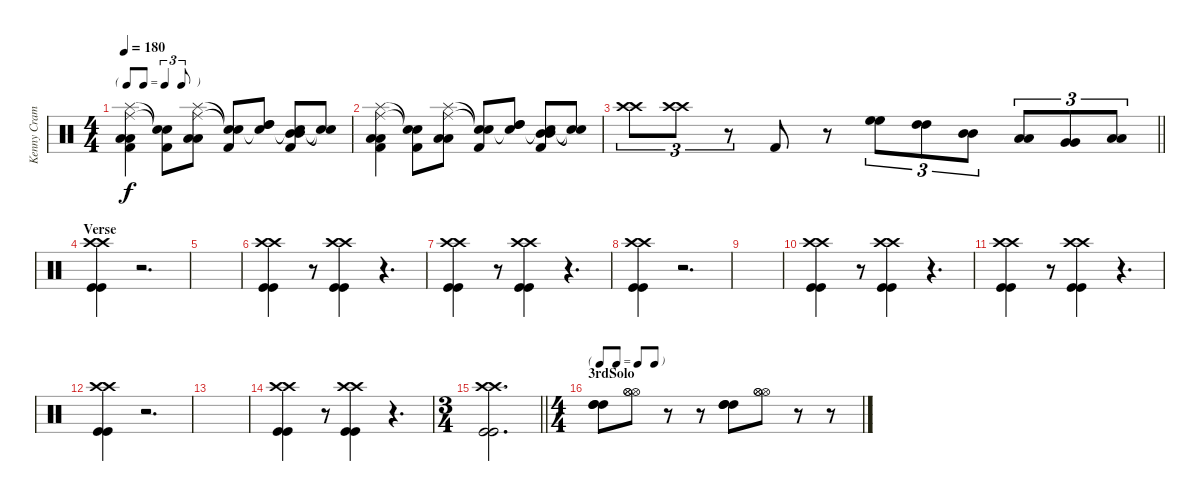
\track ("Kenny Cramme" "Kenny Cram") {instrument percussion}
\staff {score}
\articulation defaults
\ts (4 4)
\tf triplet8th
\tempo 180
\clef neutral
\ks c
("Ride (middle)" "Splash (hit)" "Low Floor Tom (hit)" "Low Floor Tom (hit)" "Kick (hit) 2").4{dy f} ("Snare (hit)"{t} "Snare (hit)"{t} "Kick (hit) 2").8 ("Ride (middle)" "Splash (hit)" "Low Floor Tom (hit)" "Low Floor Tom (hit)").8 ("Snare (hit)"{t} "Snare (hit)"{t} "Kick (hit) 2").8 ("Snare (hit)"{t} "High Tom (hit)" "High Tom (hit)").8 ("Snare (hit)"{t} "Mid Tom (hit)" "Mid Tom (hit)" "Kick (hit) 2").8 ("Snare (hit)"{t} "Snare (hit)"{t}).8 |
("Ride (middle)" "Splash (hit)" "Low Floor Tom (hit)" "Low Floor Tom (hit)" "Kick (hit) 2").4 ("Snare (hit)"{t} "Snare (hit)"{t} "Kick (hit) 2").8 ("Ride (middle)" "Splash (hit)" "Low Floor Tom (hit)" "Low Floor Tom (hit)").8 ("Snare (hit)"{t} "Snare (hit)"{t} "Kick (hit) 2").8 ("Snare (hit)"{t} "High Tom (hit)" "High Tom (hit)").8 ("Snare (hit)"{t} "Mid Tom (hit)" "Mid Tom (hit)" "Kick (hit) 2").8 ("Snare (hit)"{t} "Snare (hit)"{t}).8 |
\barLineRight lightlight
("Crash high (hit)" "Crash high (hit)").8{tu (3 2)} ("Crash high (hit)" "Crash high (hit)").8{tu (3 2)} r.8{tu (3 2)} "Kick (hit) 2".8 r.8 ("High Floor Tom (hit)" "High Floor Tom (hit)").8{tu (3 2)} ("High Tom (hit)" "High Tom (hit)").8{tu (3 2)} ("Mid Tom (hit)" "Mid Tom (hit)").8{tu (3 2)} ("Low Tom (hit)" "Low Tom (hit)").8{tu (3 2)} ("Very Low Tom (hit)" "Very Low Tom (hit)").8{tu (3 2)} ("Low Floor Tom (hit)" "Low Floor Tom (hit)").8{tu (3 2)} |
\section ("" "Verse")
("Crash high (hit)" "Crash high (hit)" "Kick (hit)" "Kick (hit)").4 r.2{d} |
|
("Crash high (hit)" "Crash high (hit)" "Kick (hit)" "Kick (hit)").4 r.8 ("Crash high (hit)" "Crash high (hit)" "Kick (hit)" "Kick (hit)").4 r.4{d} |
("Crash high (hit)" "Crash high (hit)" "Kick (hit)" "Kick (hit)").4 r.8 ("Crash high (hit)" "Crash high (hit)" "Kick (hit)" "Kick (hit)").4 r.4{d} |
("Crash high (hit)" "Crash high (hit)" "Kick (hit)" "Kick (hit)").4 r.2{d} |
|
("Crash high (hit)" "Crash high (hit)" "Kick (hit)" "Kick (hit)").4 r.8 ("Crash high (hit)" "Crash high (hit)" "Kick (hit)" "Kick (hit)").4 r.4{d} |
("Crash high (hit)" "Crash high (hit)" "Kick (hit)" "Kick (hit)").4 r.8 ("Crash high (hit)" "Crash high (hit)" "Kick (hit)" "Kick (hit)").4 r.4{d} |
("Crash high (hit)" "Crash high (hit)" "Kick (hit)" "Kick (hit)").4 r.2{d} |
|
("Crash high (hit)" "Crash high (hit)" "Kick (hit)" "Kick (hit)").4 r.8 ("Crash high (hit)" "Crash high (hit)" "Kick (hit)" "Kick (hit)").4 r.4{d} |
\ts (3 4)
\barLineRight lightlight
("Crash high (hit)" "Crash high (hit)" "Kick (hit)" "Kick (hit)").2{d} |
\ts (4 4)
\tf none
\section ("" "3rdSolo")
("High Tom (hit)" "High Tom (hit)" "High Tom (hit)").8 ("Hi-Hat (open)" "Hi-Hat (open)" "Hi-Hat (open)").8 r.8 r.8 ("High Tom (hit)" "High Tom (hit)" "High Tom (hit)").8 ("Hi-Hat (open)" "Hi-Hat (open)" "Hi-Hat (open)").8 r.8 r.8
